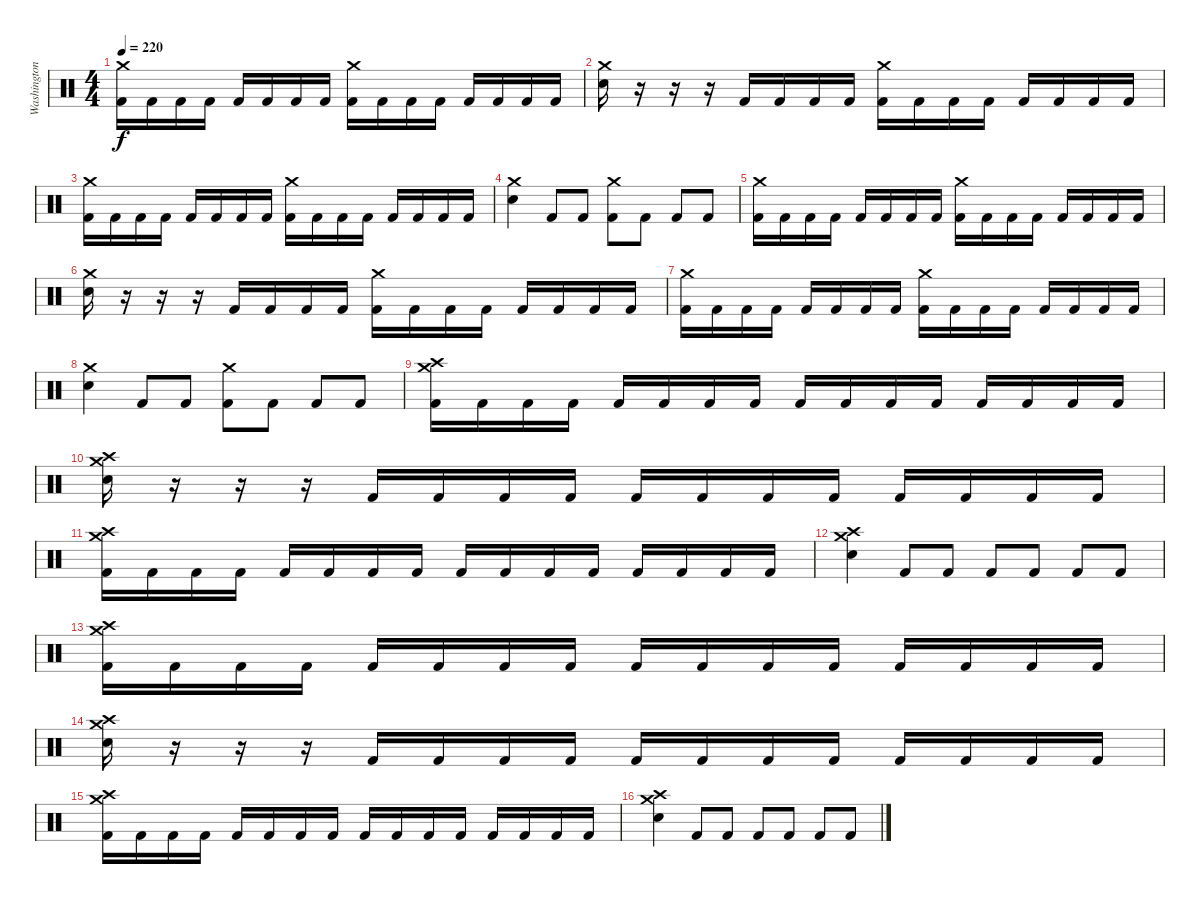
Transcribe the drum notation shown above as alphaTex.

\track ("Washington" "Washington") {instrument percussion}
\staff {score}
\articulation defaults
\ts (4 4)
\tempo 220
\clef neutral
\ks c
("Crash medium (hit)" "Kick (hit) 2").16{dy f} "Kick (hit) 2".16 "Kick (hit) 2".16 "Kick (hit) 2".16 "Kick (hit) 2".16 "Kick (hit) 2".16 "Kick (hit) 2".16 "Kick (hit) 2".16 ("Crash medium (hit)" "Kick (hit) 2").16 "Kick (hit) 2".16 "Kick (hit) 2".16 "Kick (hit) 2".16 "Kick (hit) 2".16 "Kick (hit) 2".16 "Kick (hit) 2".16 "Kick (hit) 2".16 |
("Crash medium (hit)" "Electric Snare (hit)").16 r.16 r.16 r.16 "Kick (hit) 2".16 "Kick (hit) 2".16 "Kick (hit) 2".16 "Kick (hit) 2".16 ("Crash medium (hit)" "Kick (hit) 2").16 "Kick (hit) 2".16 "Kick (hit) 2".16 "Kick (hit) 2".16 "Kick (hit) 2".16 "Kick (hit) 2".16 "Kick (hit) 2".16 "Kick (hit) 2".16 |
("Crash medium (hit)" "Kick (hit) 2").16 "Kick (hit) 2".16 "Kick (hit) 2".16 "Kick (hit) 2".16 "Kick (hit) 2".16 "Kick (hit) 2".16 "Kick (hit) 2".16 "Kick (hit) 2".16 ("Crash medium (hit)" "Kick (hit) 2").16 "Kick (hit) 2".16 "Kick (hit) 2".16 "Kick (hit) 2".16 "Kick (hit) 2".16 "Kick (hit) 2".16 "Kick (hit) 2".16 "Kick (hit) 2".16 |
("Crash medium (hit)" "Electric Snare (hit)").4 "Kick (hit) 2".8 "Kick (hit) 2".8 ("Crash medium (hit)" "Kick (hit) 2").8 "Kick (hit) 2".8 "Kick (hit) 2".8 "Kick (hit) 2".8 |
("Crash medium (hit)" "Kick (hit) 2").16 "Kick (hit) 2".16 "Kick (hit) 2".16 "Kick (hit) 2".16 "Kick (hit) 2".16 "Kick (hit) 2".16 "Kick (hit) 2".16 "Kick (hit) 2".16 ("Crash medium (hit)" "Kick (hit) 2").16 "Kick (hit) 2".16 "Kick (hit) 2".16 "Kick (hit) 2".16 "Kick (hit) 2".16 "Kick (hit) 2".16 "Kick (hit) 2".16 "Kick (hit) 2".16 |
("Crash medium (hit)" "Electric Snare (hit)").16 r.16 r.16 r.16 "Kick (hit) 2".16 "Kick (hit) 2".16 "Kick (hit) 2".16 "Kick (hit) 2".16 ("Crash medium (hit)" "Kick (hit) 2").16 "Kick (hit) 2".16 "Kick (hit) 2".16 "Kick (hit) 2".16 "Kick (hit) 2".16 "Kick (hit) 2".16 "Kick (hit) 2".16 "Kick (hit) 2".16 |
("Crash medium (hit)" "Kick (hit) 2").16 "Kick (hit) 2".16 "Kick (hit) 2".16 "Kick (hit) 2".16 "Kick (hit) 2".16 "Kick (hit) 2".16 "Kick (hit) 2".16 "Kick (hit) 2".16 ("Crash medium (hit)" "Kick (hit) 2").16 "Kick (hit) 2".16 "Kick (hit) 2".16 "Kick (hit) 2".16 "Kick (hit) 2".16 "Kick (hit) 2".16 "Kick (hit) 2".16 "Kick (hit) 2".16 |
("Crash medium (hit)" "Electric Snare (hit)").4 "Kick (hit) 2".8 "Kick (hit) 2".8 ("Crash medium (hit)" "Kick (hit) 2").8 "Kick (hit) 2".8 "Kick (hit) 2".8 "Kick (hit) 2".8 |
("Crash high (hit)" "Crash medium (hit)" "Kick (hit) 2").16 "Kick (hit) 2".16 "Kick (hit) 2".16 "Kick (hit) 2".16 "Kick (hit) 2".16 "Kick (hit) 2".16 "Kick (hit) 2".16 "Kick (hit) 2".16 "Kick (hit) 2".16 "Kick (hit) 2".16 "Kick (hit) 2".16 "Kick (hit) 2".16 "Kick (hit) 2".16 "Kick (hit) 2".16 "Kick (hit) 2".16 "Kick (hit) 2".16 |
("Crash high (hit)" "Crash medium (hit)" "Electric Snare (hit)").16 r.16 r.16 r.16 "Kick (hit) 2".16 "Kick (hit) 2".16 "Kick (hit) 2".16 "Kick (hit) 2".16 "Kick (hit) 2".16 "Kick (hit) 2".16 "Kick (hit) 2".16 "Kick (hit) 2".16 "Kick (hit) 2".16 "Kick (hit) 2".16 "Kick (hit) 2".16 "Kick (hit) 2".16 |
("Crash high (hit)" "Crash medium (hit)" "Kick (hit) 2").16 "Kick (hit) 2".16 "Kick (hit) 2".16 "Kick (hit) 2".16 "Kick (hit) 2".16 "Kick (hit) 2".16 "Kick (hit) 2".16 "Kick (hit) 2".16 "Kick (hit) 2".16 "Kick (hit) 2".16 "Kick (hit) 2".16 "Kick (hit) 2".16 "Kick (hit) 2".16 "Kick (hit) 2".16 "Kick (hit) 2".16 "Kick (hit) 2".16 |
("Crash high (hit)" "Crash medium (hit)" "Electric Snare (hit)").4 "Kick (hit) 2".8 "Kick (hit) 2".8 "Kick (hit) 2".8 "Kick (hit) 2".8 "Kick (hit) 2".8 "Kick (hit) 2".8 |
("Crash high (hit)" "Crash medium (hit)" "Kick (hit) 2").16 "Kick (hit) 2".16 "Kick (hit) 2".16 "Kick (hit) 2".16 "Kick (hit) 2".16 "Kick (hit) 2".16 "Kick (hit) 2".16 "Kick (hit) 2".16 "Kick (hit) 2".16 "Kick (hit) 2".16 "Kick (hit) 2".16 "Kick (hit) 2".16 "Kick (hit) 2".16 "Kick (hit) 2".16 "Kick (hit) 2".16 "Kick (hit) 2".16 |
("Crash high (hit)" "Crash medium (hit)" "Electric Snare (hit)").16 r.16 r.16 r.16 "Kick (hit) 2".16 "Kick (hit) 2".16 "Kick (hit) 2".16 "Kick (hit) 2".16 "Kick (hit) 2".16 "Kick (hit) 2".16 "Kick (hit) 2".16 "Kick (hit) 2".16 "Kick (hit) 2".16 "Kick (hit) 2".16 "Kick (hit) 2".16 "Kick (hit) 2".16 |
("Crash high (hit)" "Crash medium (hit)" "Kick (hit) 2").16 "Kick (hit) 2".16 "Kick (hit) 2".16 "Kick (hit) 2".16 "Kick (hit) 2".16 "Kick (hit) 2".16 "Kick (hit) 2".16 "Kick (hit) 2".16 "Kick (hit) 2".16 "Kick (hit) 2".16 "Kick (hit) 2".16 "Kick (hit) 2".16 "Kick (hit) 2".16 "Kick (hit) 2".16 "Kick (hit) 2".16 "Kick (hit) 2".16 |
("Crash high (hit)" "Crash medium (hit)" "Electric Snare (hit)").4 "Kick (hit) 2".8 "Kick (hit) 2".8 "Kick (hit) 2".8 "Kick (hit) 2".8 "Kick (hit) 2".8 "Kick (hit) 2".8
